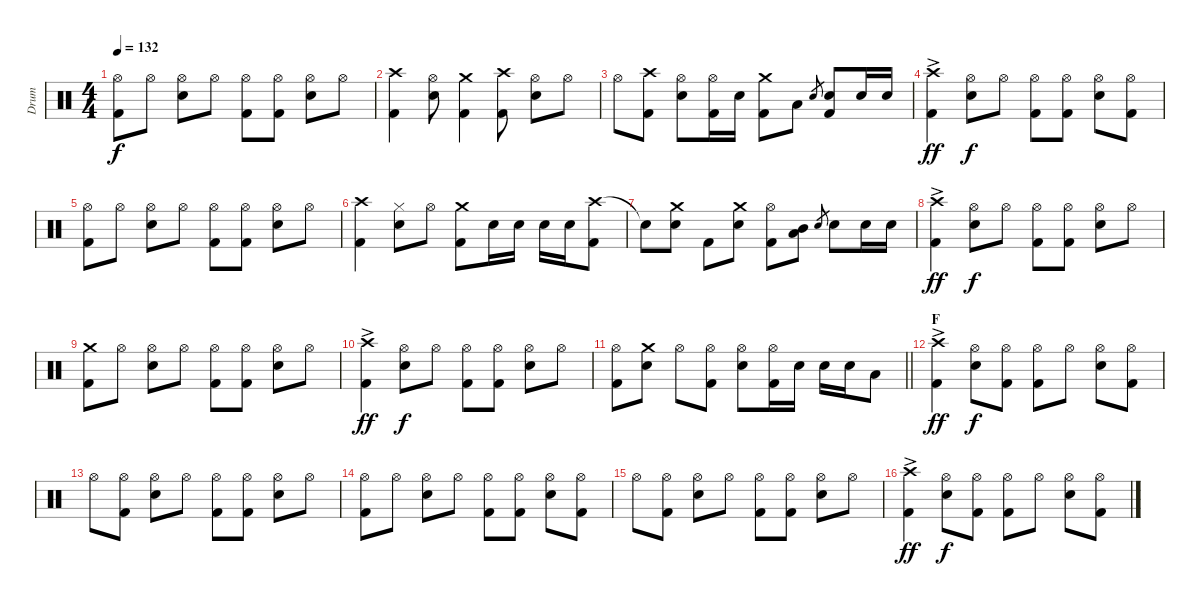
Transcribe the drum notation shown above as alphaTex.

\track ("Drum" "Drum") {instrument percussion}
\staff {score}
\articulation defaults
\ts (4 4)
\tempo 132
\clef neutral
\ks c
("Hi-Hat (open)" "Kick (hit) 2").8{dy f} "Hi-Hat (open)".8 ("Hi-Hat (open)" "Electric Snare (hit)").8 "Hi-Hat (open)".8 ("Hi-Hat (open)" "Kick (hit) 2").8 ("Hi-Hat (open)" "Kick (hit) 2").8 ("Hi-Hat (open)" "Electric Snare (hit)").8 "Hi-Hat (open)".8 |
("Crash high (hit)" "Kick (hit) 2").4 ("Hi-Hat (open)" "Electric Snare (hit)").8 ("Crash medium (hit)" "Kick (hit) 2").4 ("Crash high (hit)" "Kick (hit) 2").8 ("Hi-Hat (open)" "Electric Snare (hit)").8 "Hi-Hat (open)".8 |
"Hi-Hat (open)".8 ("Crash high (hit)" "Kick (hit) 2").8 ("Hi-Hat (open)" "Electric Snare (hit)").8 ("Hi-Hat (open)" "Kick (hit) 2").16 "Electric Snare (hit)".16 ("Crash medium (hit)" "Kick (hit) 2").8 "Low Tom (hit)".8 "Electric Snare (hit)".8{gr} ("Electric Snare (hit)" "Kick (hit) 2").8 "Electric Snare (hit)".16 "Electric Snare (hit)".16 |
("Crash high (hit)"{ac} "Kick (hit) 2").4{dy ff} ("Hi-Hat (open)" "Electric Snare (hit)").8{dy f} "Hi-Hat (open)".8 ("Hi-Hat (open)" "Kick (hit) 2").8 ("Hi-Hat (open)" "Kick (hit) 2").8 ("Hi-Hat (open)" "Electric Snare (hit)").8 ("Hi-Hat (open)" "Kick (hit) 2").8 |
("Hi-Hat (open)" "Kick (hit) 2").8 "Hi-Hat (open)".8 ("Hi-Hat (open)" "Electric Snare (hit)").8 "Hi-Hat (open)".8 ("Hi-Hat (open)" "Kick (hit) 2").8 ("Hi-Hat (open)" "Kick (hit) 2").8 ("Hi-Hat (open)" "Electric Snare (hit)").8 "Hi-Hat (open)".8 |
("Crash high (hit)" "Kick (hit) 2").4 ("Hi-Hat (closed)" "Electric Snare (hit)").8 "Hi-Hat (open)".8 ("Crash medium (hit)" "Kick (hit) 2").8 "Electric Snare (hit)".16 "Electric Snare (hit)".16 "Electric Snare (hit)".16 "Electric Snare (hit)".16 ("Crash high (hit)" "Kick (hit) 2").8 |
"Snare (hit)"{t}.8 ("Crash medium (hit)" "Electric Snare (hit)").8 "Kick (hit) 2".8 ("Crash medium (hit)" "Electric Snare (hit)").8 ("Hi-Hat (open)" "Kick (hit) 2").8 ("Mid Tom (hit)" "Low Tom (hit)").8 "Electric Snare (hit)".8{gr} "Electric Snare (hit)".8 "Electric Snare (hit)".16 "Electric Snare (hit)".16 |
("Crash high (hit)"{ac} "Kick (hit) 2").4{dy ff} ("Hi-Hat (open)" "Electric Snare (hit)").8{dy f} "Hi-Hat (open)".8 ("Hi-Hat (open)" "Kick (hit) 2").8 ("Hi-Hat (open)" "Kick (hit) 2").8 ("Hi-Hat (open)" "Electric Snare (hit)").8 "Hi-Hat (open)".8 |
("Crash medium (hit)" "Kick (hit) 2").8 "Hi-Hat (open)".8 ("Hi-Hat (open)" "Electric Snare (hit)").8 "Hi-Hat (open)".8 ("Hi-Hat (open)" "Kick (hit) 2").8 ("Hi-Hat (open)" "Kick (hit) 2").8 ("Hi-Hat (open)" "Electric Snare (hit)").8 "Hi-Hat (open)".8 |
("Crash high (hit)"{ac} "Kick (hit) 2").4{dy ff} ("Hi-Hat (open)" "Electric Snare (hit)").8{dy f} "Hi-Hat (open)".8 ("Hi-Hat (open)" "Kick (hit) 2").8 ("Hi-Hat (open)" "Kick (hit) 2").8 ("Hi-Hat (open)" "Electric Snare (hit)").8 "Hi-Hat (open)".8 |
\barLineRight lightlight
("Hi-Hat (open)" "Kick (hit) 2").8 ("Crash medium (hit)" "Electric Snare (hit)").8 "Hi-Hat (open)".8 ("Hi-Hat (open)" "Kick (hit) 2").8 ("Hi-Hat (open)" "Electric Snare (hit)").8 ("Hi-Hat (open)" "Kick (hit) 2").16 "Electric Snare (hit)".16 "Electric Snare (hit)".16 "Electric Snare (hit)".16 "Low Tom (hit)".8 |
\section ("" "F")
("Crash high (hit)"{ac} "Kick (hit) 2").4{dy ff} ("Hi-Hat (open)" "Electric Snare (hit)").8{dy f} ("Hi-Hat (open)" "Kick (hit) 2").8 ("Hi-Hat (open)" "Kick (hit) 2").8 "Hi-Hat (open)".8 ("Hi-Hat (open)" "Electric Snare (hit)").8 ("Hi-Hat (open)" "Kick (hit) 2").8 |
"Hi-Hat (open)".8 ("Hi-Hat (open)" "Kick (hit) 2").8 ("Hi-Hat (open)" "Electric Snare (hit)").8 "Hi-Hat (open)".8 ("Hi-Hat (open)" "Kick (hit) 2").8 ("Hi-Hat (open)" "Kick (hit) 2").8 ("Hi-Hat (open)" "Electric Snare (hit)").8 "Hi-Hat (open)".8 |
("Hi-Hat (open)" "Kick (hit) 2").8 "Hi-Hat (open)".8 ("Hi-Hat (open)" "Electric Snare (hit)").8 "Hi-Hat (open)".8 ("Hi-Hat (open)" "Kick (hit) 2").8 ("Hi-Hat (open)" "Kick (hit) 2").8 ("Hi-Hat (open)" "Electric Snare (hit)").8 ("Hi-Hat (open)" "Kick (hit) 2").8 |
"Hi-Hat (open)".8 ("Hi-Hat (open)" "Kick (hit) 2").8 ("Hi-Hat (open)" "Electric Snare (hit)").8 "Hi-Hat (open)".8 ("Hi-Hat (open)" "Kick (hit) 2").8 ("Hi-Hat (open)" "Kick (hit) 2").8 ("Hi-Hat (open)" "Electric Snare (hit)").8 "Hi-Hat (open)".8 |
("Crash high (hit)"{ac} "Kick (hit) 2").4{dy ff} ("Hi-Hat (open)" "Electric Snare (hit)").8{dy f} ("Hi-Hat (open)" "Kick (hit) 2").8 ("Hi-Hat (open)" "Kick (hit) 2").8 "Hi-Hat (open)".8 ("Hi-Hat (open)" "Electric Snare (hit)").8 ("Hi-Hat (open)" "Kick (hit) 2").8
